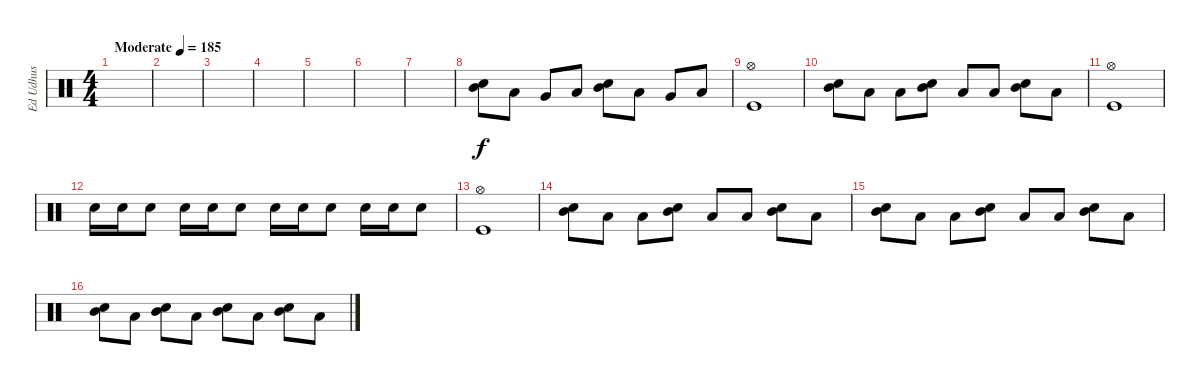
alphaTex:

\track ("Ed Udhus" "Ed Udhus") {instrument percussion}
\staff {score}
\articulation defaults
\ts (4 4)
\tempo (185 "Moderate")
\clef neutral
\ks c
|
|
|
|
|
|
|
("Electric Snare (hit)" "Mid Tom (hit)").8 "Low Floor Tom (hit)".8 "Very Low Tom (hit)".8 "Low Floor Tom (hit)".8 ("Electric Snare (hit)" "Mid Tom (hit)").8 "Low Floor Tom (hit)".8 "Very Low Tom (hit)".8 "Low Floor Tom (hit)".8 |
("Hi-Hat (open)" "Kick (hit)").1 |
("Electric Snare (hit)" "Mid Tom (hit)").8 "Low Floor Tom (hit)".8 "Low Floor Tom (hit)".8 ("Electric Snare (hit)" "Mid Tom (hit)").8 "Low Floor Tom (hit)".8 "Low Floor Tom (hit)".8 ("Electric Snare (hit)" "Mid Tom (hit)").8 "Low Floor Tom (hit)".8 |
("Hi-Hat (open)" "Kick (hit)").1 |
"Snare (hit) 2".16 "Snare (hit) 2".16 "Snare (hit) 2".8 "Snare (hit) 2".16 "Snare (hit) 2".16 "Snare (hit) 2".8 "Electric Snare (hit)".16 "Electric Snare (hit)".16 "Electric Snare (hit)".8 "Electric Snare (hit)".16 "Electric Snare (hit)".16 "Electric Snare (hit)".8 |
("Hi-Hat (open)" "Kick (hit)").1 |
("Electric Snare (hit)" "Mid Tom (hit)").8 "Low Floor Tom (hit)".8 "Low Floor Tom (hit)".8 ("Electric Snare (hit)" "Mid Tom (hit)").8 "Low Floor Tom (hit)".8 "Low Floor Tom (hit)".8 ("Electric Snare (hit)" "Mid Tom (hit)").8 "Low Floor Tom (hit)".8 |
("Electric Snare (hit)" "Mid Tom (hit)").8 "Low Floor Tom (hit)".8 "Low Floor Tom (hit)".8 ("Electric Snare (hit)" "Mid Tom (hit)").8 "Low Floor Tom (hit)".8 "Low Floor Tom (hit)".8 ("Electric Snare (hit)" "Mid Tom (hit)").8 "Low Floor Tom (hit)".8 |
("Electric Snare (hit)" "Mid Tom (hit)").8 "Low Floor Tom (hit)".8 ("Electric Snare (hit)" "Mid Tom (hit)").8 "Low Floor Tom (hit)".8 ("Electric Snare (hit)" "Mid Tom (hit)").8 "Low Floor Tom (hit)".8 ("Electric Snare (hit)" "Mid Tom (hit)").8 "Low Floor Tom (hit)".8
